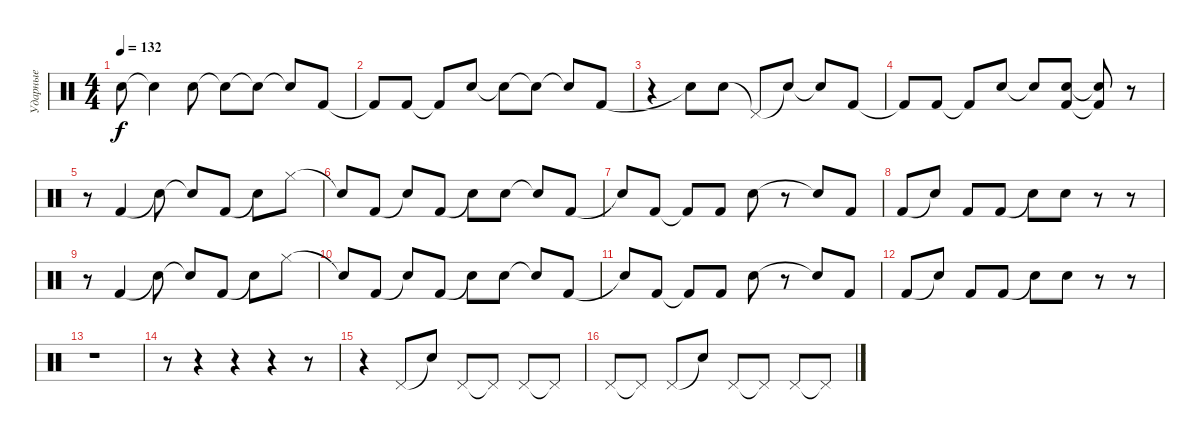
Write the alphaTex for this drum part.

\track ("Ударные" "Ударные") {instrument percussion}
\staff {score}
\articulation defaults
\ts (4 4)
\tempo 132
\clef neutral
\ks c "Snare (hit)"{t}.8{dy f} "Snare (hit)"{t}.4 "Snare (hit) 2".8 "Snare (hit)"{t}.8 "Snare (hit)"{t}.8 "Snare (hit)"{t}.8 "Kick (hit) 2".8
|
"Kick (hit) 2"{t}.8 "Kick (hit) 2".8 "Kick (hit) 2"{t}.8 "Snare (hit) 2".8 "Snare (hit)"{t}.8 "Snare (hit)"{t}.8 "Snare (hit)"{t}.8 "Kick (hit) 2".8 |
r.4 "Snare (hit)"{t}.8 "Snare (hit) 2".8 "Pedal Hi-Hat (hit)"{t}.8 "Snare (hit)"{t}.8 "Snare (hit)"{t}.8 "Kick (hit) 2".8 |
"Kick (hit) 2"{t}.8 "Kick (hit) 2".8 "Kick (hit) 2"{t}.8 "Snare (hit) 2".8 "Snare (hit)"{t}.8 ("Kick (hit) 2" "Snare (hit)").8 ("Kick (hit) 2"{t} "Snare (hit)"{t}).8 r.8 |
r.8 "Kick (hit) 2".4 "Snare (hit)"{t}.8 "Snare (hit)"{t}.8 "Kick (hit) 2".8 "Snare (hit)"{t}.8 "Hi-Hat (closed)".8 |
"Snare (hit)"{t}.8 "Kick (hit) 2".8 "Snare (hit)"{t}.8 "Kick (hit) 2".8 "Snare (hit)"{t}.8 "Snare (hit) 2".8 "Snare (hit)"{t}.8 "Kick (hit) 2".8 |
"Snare (hit)"{t}.8 "Kick (hit) 2".8 "Kick (hit) 2"{t}.8 "Kick (hit) 2".8 "Snare (hit) 2".8 r.8 "Snare (hit)"{t}.8 "Kick (hit) 2".8 |
"Kick (hit) 2".8 "Snare (hit)"{t}.8 "Kick (hit) 2".8 "Kick (hit) 2".8 "Snare (hit) 2"{t}.8 "Snare (hit) 2".8 r.8 r.8 |
r.8 "Kick (hit) 2".4 "Snare (hit)"{t}.8 "Snare (hit)"{t}.8 "Kick (hit) 2".8 "Snare (hit)"{t}.8 "Hi-Hat (closed)".8 |
"Snare (hit)"{t}.8 "Kick (hit) 2".8 "Snare (hit)"{t}.8 "Kick (hit) 2".8 "Snare (hit)"{t}.8 "Snare (hit) 2".8 "Snare (hit)"{t}.8 "Kick (hit) 2".8 |
"Snare (hit)"{t}.8 "Kick (hit) 2".8 "Kick (hit) 2"{t}.8 "Kick (hit) 2".8 "Snare (hit) 2".8 r.8 "Snare (hit)"{t}.8 "Kick (hit) 2".8 |
"Kick (hit) 2".8 "Snare (hit)"{t}.8 "Kick (hit) 2".8 "Kick (hit) 2".8 "Snare (hit) 2"{t}.8 "Snare (hit) 2".8 r.8 r.8 |
r.1 |
r.8 r.4 r.4 r.4 r.8 |
r.4 "Pedal Hi-Hat (hit)".8 "Snare (hit)"{t}.8 "Pedal Hi-Hat (hit)".8 "Pedal Hi-Hat (hit)"{t}.8 "Pedal Hi-Hat (hit)".8 "Pedal Hi-Hat (hit)"{t}.8 |
"Pedal Hi-Hat (hit)".8 "Pedal Hi-Hat (hit)"{t}.8 "Pedal Hi-Hat (hit)".8 "Snare (hit)"{t}.8 "Pedal Hi-Hat (hit)".8 "Pedal Hi-Hat (hit)"{t}.8 "Pedal Hi-Hat (hit)".8 "Pedal Hi-Hat (hit)"{t}.8
